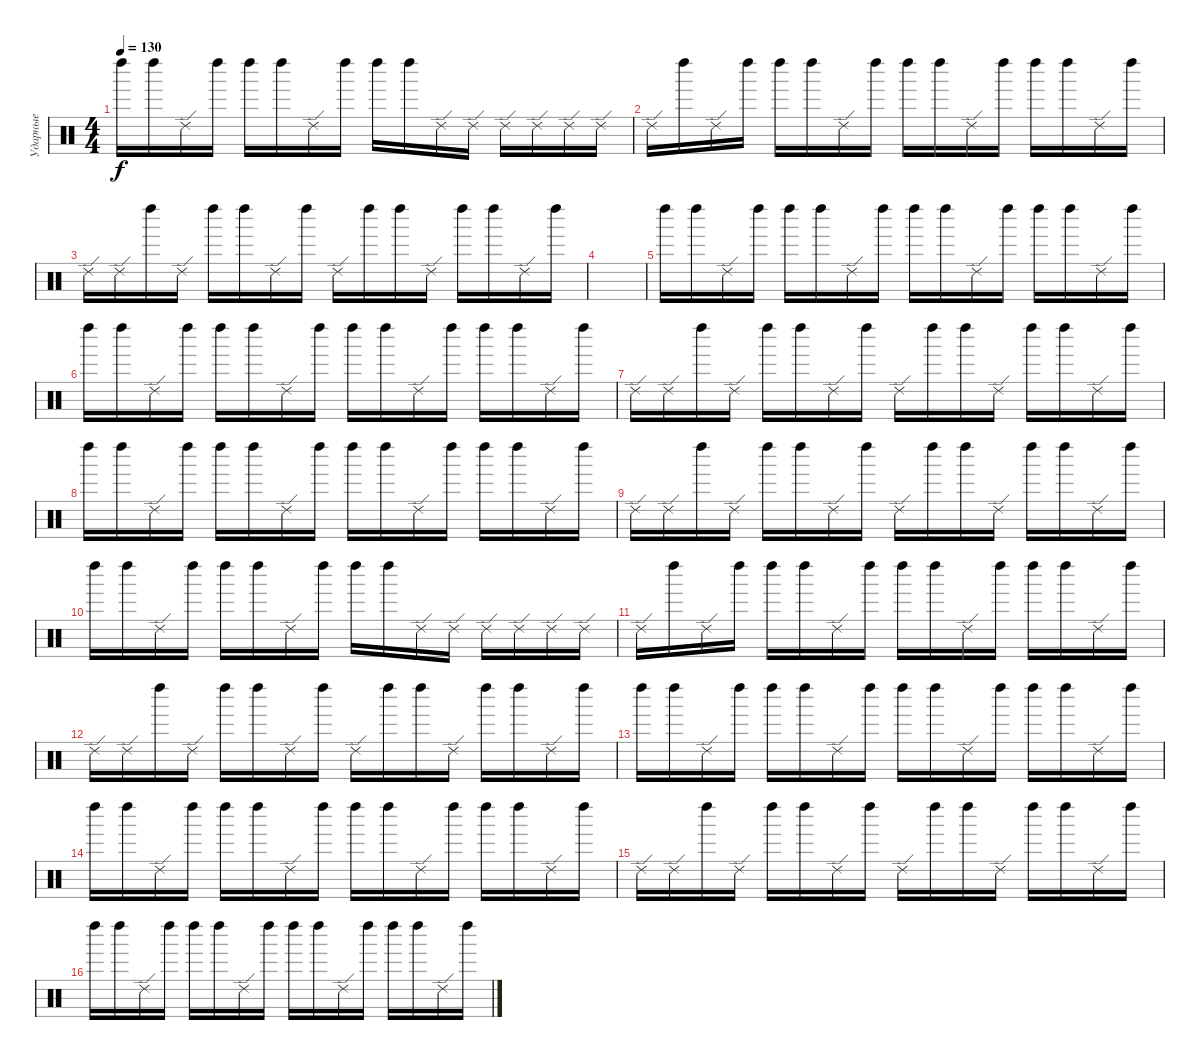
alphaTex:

\track ("Ударные" "Ударные") {instrument percussion}
\staff {score}
\articulation defaults
\ts (4 4)
\tempo 130
\clef neutral
\ks c "Left Maraca (hit)".16{dy f} "Left Maraca (hit)".16 "Ride (edge) 2".16 "Left Maraca (hit)".16 "Left Maraca (hit)".16 "Left Maraca (hit)".16 "Ride (edge) 2".16 "Left Maraca (hit)".16 "Left Maraca (hit)".16 "Left Maraca (hit)".16 "Ride (edge) 2".16 "Ride (edge) 2".16 "Ride (edge) 2".16 "Ride (edge) 2".16 "Ride (edge) 2".16 "Ride (edge) 2".16
|
"Ride (edge) 2".16 "Left Maraca (hit)".16 "Ride (edge) 2".16 "Left Maraca (hit)".16 "Left Maraca (hit)".16 "Left Maraca (hit)".16 "Ride (edge) 2".16 "Left Maraca (hit)".16 "Left Maraca (hit)".16 "Left Maraca (hit)".16 "Ride (edge) 2".16 "Left Maraca (hit)".16 "Left Maraca (hit)".16 "Left Maraca (hit)".16 "Ride (edge) 2".16 "Left Maraca (hit)".16 |
"Ride (edge) 2".16 "Ride (edge) 2".16 "Left Maraca (hit)".16 "Ride (edge) 2".16 "Left Maraca (hit)".16 "Left Maraca (hit)".16 "Ride (edge) 2".16 "Left Maraca (hit)".16 "Ride (edge) 2".16 "Left Maraca (hit)".16 "Left Maraca (hit)".16 "Ride (edge) 2".16 "Left Maraca (hit)".16 "Left Maraca (hit)".16 "Ride (edge) 2".16 "Left Maraca (hit)".16 |
|
"Left Maraca (hit)".16 "Left Maraca (hit)".16 "Ride (edge) 2".16 "Left Maraca (hit)".16 "Left Maraca (hit)".16 "Left Maraca (hit)".16 "Ride (edge) 2".16 "Left Maraca (hit)".16 "Left Maraca (hit)".16 "Left Maraca (hit)".16 "Ride (edge) 2".16 "Left Maraca (hit)".16 "Left Maraca (hit)".16 "Left Maraca (hit)".16 "Ride (edge) 2".16 "Left Maraca (hit)".16 |
"Left Maraca (hit)".16 "Left Maraca (hit)".16 "Ride (edge) 2".16 "Left Maraca (hit)".16 "Left Maraca (hit)".16 "Left Maraca (hit)".16 "Ride (edge) 2".16 "Left Maraca (hit)".16 "Left Maraca (hit)".16 "Left Maraca (hit)".16 "Ride (edge) 2".16 "Left Maraca (hit)".16 "Left Maraca (hit)".16 "Left Maraca (hit)".16 "Ride (edge) 2".16 "Left Maraca (hit)".16 |
"Ride (edge) 2".16 "Ride (edge) 2".16 "Left Maraca (hit)".16 "Ride (edge) 2".16 "Left Maraca (hit)".16 "Left Maraca (hit)".16 "Ride (edge) 2".16 "Left Maraca (hit)".16 "Ride (edge) 2".16 "Left Maraca (hit)".16 "Left Maraca (hit)".16 "Ride (edge) 2".16 "Left Maraca (hit)".16 "Left Maraca (hit)".16 "Ride (edge) 2".16 "Left Maraca (hit)".16 |
"Left Maraca (hit)".16 "Left Maraca (hit)".16 "Ride (edge) 2".16 "Left Maraca (hit)".16 "Left Maraca (hit)".16 "Left Maraca (hit)".16 "Ride (edge) 2".16 "Left Maraca (hit)".16 "Left Maraca (hit)".16 "Left Maraca (hit)".16 "Ride (edge) 2".16 "Left Maraca (hit)".16 "Left Maraca (hit)".16 "Left Maraca (hit)".16 "Ride (edge) 2".16 "Left Maraca (hit)".16 |
"Ride (edge) 2".16 "Ride (edge) 2".16 "Left Maraca (hit)".16 "Ride (edge) 2".16 "Left Maraca (hit)".16 "Left Maraca (hit)".16 "Ride (edge) 2".16 "Left Maraca (hit)".16 "Ride (edge) 2".16 "Left Maraca (hit)".16 "Left Maraca (hit)".16 "Ride (edge) 2".16 "Left Maraca (hit)".16 "Left Maraca (hit)".16 "Ride (edge) 2".16 "Left Maraca (hit)".16 |
"Left Maraca (hit)".16 "Left Maraca (hit)".16 "Ride (edge) 2".16 "Left Maraca (hit)".16 "Left Maraca (hit)".16 "Left Maraca (hit)".16 "Ride (edge) 2".16 "Left Maraca (hit)".16 "Left Maraca (hit)".16 "Left Maraca (hit)".16 "Ride (edge) 2".16 "Ride (edge) 2".16 "Ride (edge) 2".16 "Ride (edge) 2".16 "Ride (edge) 2".16 "Ride (edge) 2".16 |
"Ride (edge) 2".16 "Left Maraca (hit)".16 "Ride (edge) 2".16 "Left Maraca (hit)".16 "Left Maraca (hit)".16 "Left Maraca (hit)".16 "Ride (edge) 2".16 "Left Maraca (hit)".16 "Left Maraca (hit)".16 "Left Maraca (hit)".16 "Ride (edge) 2".16 "Left Maraca (hit)".16 "Left Maraca (hit)".16 "Left Maraca (hit)".16 "Ride (edge) 2".16 "Left Maraca (hit)".16 |
"Ride (edge) 2".16 "Ride (edge) 2".16 "Left Maraca (hit)".16 "Ride (edge) 2".16 "Left Maraca (hit)".16 "Left Maraca (hit)".16 "Ride (edge) 2".16 "Left Maraca (hit)".16 "Ride (edge) 2".16 "Left Maraca (hit)".16 "Left Maraca (hit)".16 "Ride (edge) 2".16 "Left Maraca (hit)".16 "Left Maraca (hit)".16 "Ride (edge) 2".16 "Left Maraca (hit)".16 |
"Left Maraca (hit)".16 "Left Maraca (hit)".16 "Ride (edge) 2".16 "Left Maraca (hit)".16 "Left Maraca (hit)".16 "Left Maraca (hit)".16 "Ride (edge) 2".16 "Left Maraca (hit)".16 "Left Maraca (hit)".16 "Left Maraca (hit)".16 "Ride (edge) 2".16 "Left Maraca (hit)".16 "Left Maraca (hit)".16 "Left Maraca (hit)".16 "Ride (edge) 2".16 "Left Maraca (hit)".16 |
"Left Maraca (hit)".16 "Left Maraca (hit)".16 "Ride (edge) 2".16 "Left Maraca (hit)".16 "Left Maraca (hit)".16 "Left Maraca (hit)".16 "Ride (edge) 2".16 "Left Maraca (hit)".16 "Left Maraca (hit)".16 "Left Maraca (hit)".16 "Ride (edge) 2".16 "Left Maraca (hit)".16 "Left Maraca (hit)".16 "Left Maraca (hit)".16 "Ride (edge) 2".16 "Left Maraca (hit)".16 |
"Ride (edge) 2".16 "Ride (edge) 2".16 "Left Maraca (hit)".16 "Ride (edge) 2".16 "Left Maraca (hit)".16 "Left Maraca (hit)".16 "Ride (edge) 2".16 "Left Maraca (hit)".16 "Ride (edge) 2".16 "Left Maraca (hit)".16 "Left Maraca (hit)".16 "Ride (edge) 2".16 "Left Maraca (hit)".16 "Left Maraca (hit)".16 "Ride (edge) 2".16 "Left Maraca (hit)".16 |
"Left Maraca (hit)".16 "Left Maraca (hit)".16 "Ride (edge) 2".16 "Left Maraca (hit)".16 "Left Maraca (hit)".16 "Left Maraca (hit)".16 "Ride (edge) 2".16 "Left Maraca (hit)".16 "Left Maraca (hit)".16 "Left Maraca (hit)".16 "Ride (edge) 2".16 "Left Maraca (hit)".16 "Left Maraca (hit)".16 "Left Maraca (hit)".16 "Ride (edge) 2".16 "Left Maraca (hit)".16
